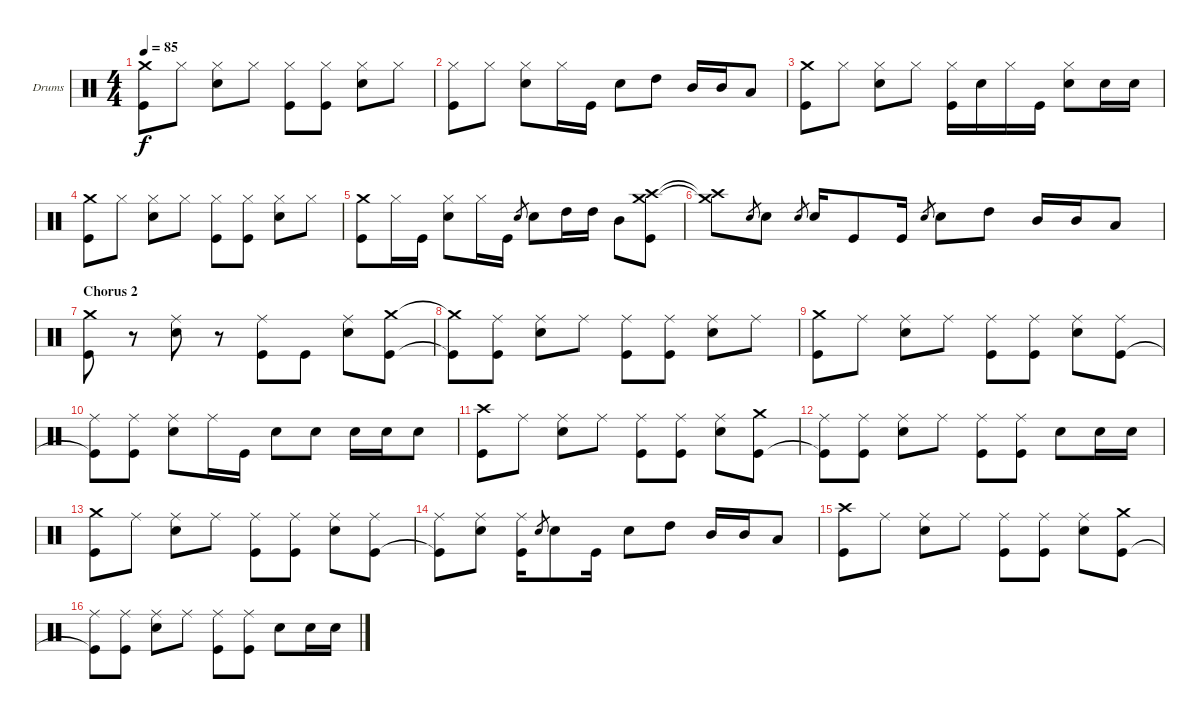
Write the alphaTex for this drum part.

\defaultSystemsLayout 4
\bracketExtendMode groupsimilarinstruments
\firstSystemTrackNameOrientation horizontal
\otherSystemsTrackNameOrientation horizontal
\track ("Matt" "Drums") {instrument percussion}
\staff {score}
\articulation defaults
\ts (4 4)
\tempo 85
\clef neutral
\ks c
("Crash medium (hit)" "Kick (hit)").8{dy f} "Hi-Hat (closed)".8 ("Hi-Hat (closed)" "Snare (hit) 2").8 "Hi-Hat (closed)".8 ("Hi-Hat (closed)" "Kick (hit)").8 ("Hi-Hat (closed)" "Kick (hit)").8 ("Hi-Hat (closed)" "Snare (hit) 2").8 "Hi-Hat (closed)".8 |
("Hi-Hat (closed)" "Kick (hit)").8 "Hi-Hat (closed)".8 ("Hi-Hat (closed)" "Snare (hit) 2").8 "Hi-Hat (closed)".16 "Kick (hit)".16 "Snare (hit) 2".8 "High Tom (hit)".8 "Mid Tom (hit)".16 "Mid Tom (hit)".16 "Low Tom (hit)".8 |
("Crash medium (hit)" "Kick (hit)").8 "Hi-Hat (closed)".8 ("Hi-Hat (closed)" "Snare (hit) 2").8 "Hi-Hat (closed)".8 ("Hi-Hat (closed)" "Kick (hit)").16 "Snare (hit) 2".16 "Hi-Hat (closed)".16 "Kick (hit)".16 ("Hi-Hat (closed)" "Snare (hit) 2").8 "Snare (hit) 2".16 "Snare (hit) 2".16 |
("Crash medium (hit)" "Kick (hit)").8 "Hi-Hat (closed)".8 ("Hi-Hat (closed)" "Snare (hit) 2").8 "Hi-Hat (closed)".8 ("Hi-Hat (closed)" "Kick (hit)").8 ("Hi-Hat (closed)" "Kick (hit)").8 ("Hi-Hat (closed)" "Snare (hit) 2").8 "Hi-Hat (closed)".8 |
("Crash medium (hit)" "Kick (hit)").8 "Hi-Hat (closed)".16 "Kick (hit)".16 ("Hi-Hat (closed)" "Snare (hit) 2").8 "Hi-Hat (closed)".16 "Kick (hit)".16 "Snare (hit) 2".8{gr} "Snare (hit) 2".8 "High Tom (hit)".16 "High Tom (hit)".16 "Mid Tom (hit)".8 ("Crash high (hit)" "Crash medium (hit)" "Kick (hit)").8 |
("Crash high (hit)"{t} "Crash medium (hit)"{t}).8 "Snare (hit) 2".8{gr} "Snare (hit) 2".8 "Snare (hit) 2".8{gr} "Snare (hit) 2".16 "Kick (hit)".8 "Kick (hit)".16 "Snare (hit) 2".8{gr} "Snare (hit) 2".8 "High Tom (hit)".8 "Mid Tom (hit)".16 "Mid Tom (hit)".16 "Low Tom (hit)".8 |
\section ("" "Chorus 2")
("Crash medium (hit)" "Kick (hit)").8 r.8 ("Ride (middle)" "Snare (hit) 2").8 r.8 ("Ride (middle)" "Kick (hit)").8 "Kick (hit)".8 ("Ride (middle)" "Snare (hit) 2").8 ("Crash medium (hit)" "Kick (hit)").8 |
("Crash medium (hit)"{t} "Kick (hit)"{t}).8 ("Ride (middle)" "Kick (hit)").8 ("Ride (middle)" "Snare (hit) 2").8 "Ride (middle)".8 ("Ride (middle)" "Kick (hit)").8 ("Ride (middle)" "Kick (hit)").8 ("Ride (middle)" "Snare (hit) 2").8 "Ride (middle)".8 |
("Crash medium (hit)" "Kick (hit)").8 "Ride (middle)".8 ("Ride (middle)" "Snare (hit) 2").8 "Ride (middle)".8 ("Ride (middle)" "Kick (hit)").8 ("Ride (middle)" "Kick (hit)").8 ("Ride (middle)" "Snare (hit) 2").8 ("Ride (middle)" "Kick (hit)").8 |
("Ride (middle)" "Kick (hit)"{t}).8 ("Ride (middle)" "Kick (hit)").8 ("Ride (middle)" "Snare (hit) 2").8 "Ride (middle)".16 "Kick (hit)".16 "Snare (hit) 2".8 "Snare (hit) 2".8 "Snare (hit) 2".16 "Snare (hit) 2".16 "Snare (hit) 2".8 |
("Crash high (hit)" "Kick (hit)").8 "Ride (middle)".8 ("Ride (middle)" "Snare (hit) 2").8 "Ride (middle)".8 ("Ride (middle)" "Kick (hit)").8 ("Ride (middle)" "Kick (hit)").8 ("Ride (middle)" "Snare (hit) 2").8 ("Crash medium (hit)" "Kick (hit)").8 |
("Ride (middle)" "Kick (hit)"{t}).8 ("Ride (middle)" "Kick (hit)").8 ("Ride (middle)" "Snare (hit) 2").8 "Ride (middle)".8 ("Ride (middle)" "Kick (hit)").8 ("Ride (middle)" "Kick (hit)").8 "Snare (hit) 2".8 "Snare (hit) 2".16 "Snare (hit) 2".16 |
("Crash medium (hit)" "Kick (hit)").8 "Ride (middle)".8 ("Ride (middle)" "Snare (hit) 2").8 "Ride (middle)".8 ("Ride (middle)" "Kick (hit)").8 ("Ride (middle)" "Kick (hit)").8 ("Ride (middle)" "Snare (hit) 2").8 ("Ride (middle)" "Kick (hit)").8 |
("Ride (middle)" "Kick (hit)"{t}).8 ("Ride (middle)" "Snare (hit) 2").8 ("Ride (middle)" "Kick (hit)").16 "Snare (hit) 2".8{gr} "Snare (hit) 2".8 "Kick (hit)".16 "Snare (hit) 2".8 "High Tom (hit)".8 "Mid Tom (hit)".16 "Mid Tom (hit)".16 "Low Tom (hit)".8 |
("Crash high (hit)" "Kick (hit)").8 "Ride (middle)".8 ("Ride (middle)" "Snare (hit) 2").8 "Ride (middle)".8 ("Ride (middle)" "Kick (hit)").8 ("Ride (middle)" "Kick (hit)").8 ("Ride (middle)" "Snare (hit) 2").8 ("Crash medium (hit)" "Kick (hit)").8 |
("Ride (middle)" "Kick (hit)"{t}).8 ("Ride (middle)" "Kick (hit)").8 ("Ride (middle)" "Snare (hit) 2").8 "Ride (middle)".8 ("Ride (middle)" "Kick (hit)").8 ("Ride (middle)" "Kick (hit)").8 "Snare (hit) 2".8 "Snare (hit) 2".16 "Snare (hit) 2".16
